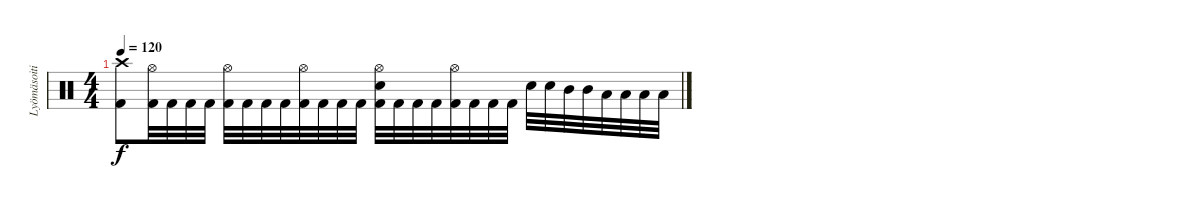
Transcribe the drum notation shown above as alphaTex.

\track ("Lyömäsoitin" "Lyömäsoiti") {instrument percussion}
\staff {score}
\articulation defaults
\ts (4 4)
\tempo 120
\clef neutral
\ks c
("Crash high (hit)" "Kick (hit) 2").8{dy f} ("Hi-Hat (open)" "Kick (hit) 2").32 "Kick (hit) 2".32 "Kick (hit) 2".32 "Kick (hit) 2".32 ("Hi-Hat (open)" "Kick (hit) 2").32 "Kick (hit) 2".32 "Kick (hit) 2".32 "Kick (hit) 2".32 ("Hi-Hat (open)" "Kick (hit) 2").32 "Kick (hit) 2".32 "Kick (hit) 2".32 "Kick (hit) 2".32 ("Hi-Hat (open)" "Snare (hit) 2" "Kick (hit) 2").32 "Kick (hit) 2".32 "Kick (hit) 2".32 "Kick (hit) 2".32 ("Hi-Hat (open)" "Kick (hit) 2").32 "Kick (hit) 2".32 "Kick (hit) 2".32 "Kick (hit) 2".32 "Snare (hit) 2".32 "Snare (hit) 2".32 "Mid Tom (hit)".32 "Mid Tom (hit)".32 "Low Tom (hit)".32 "Low Tom (hit)".32 "Low Floor Tom (hit)".32 "Low Floor Tom (hit)".32
